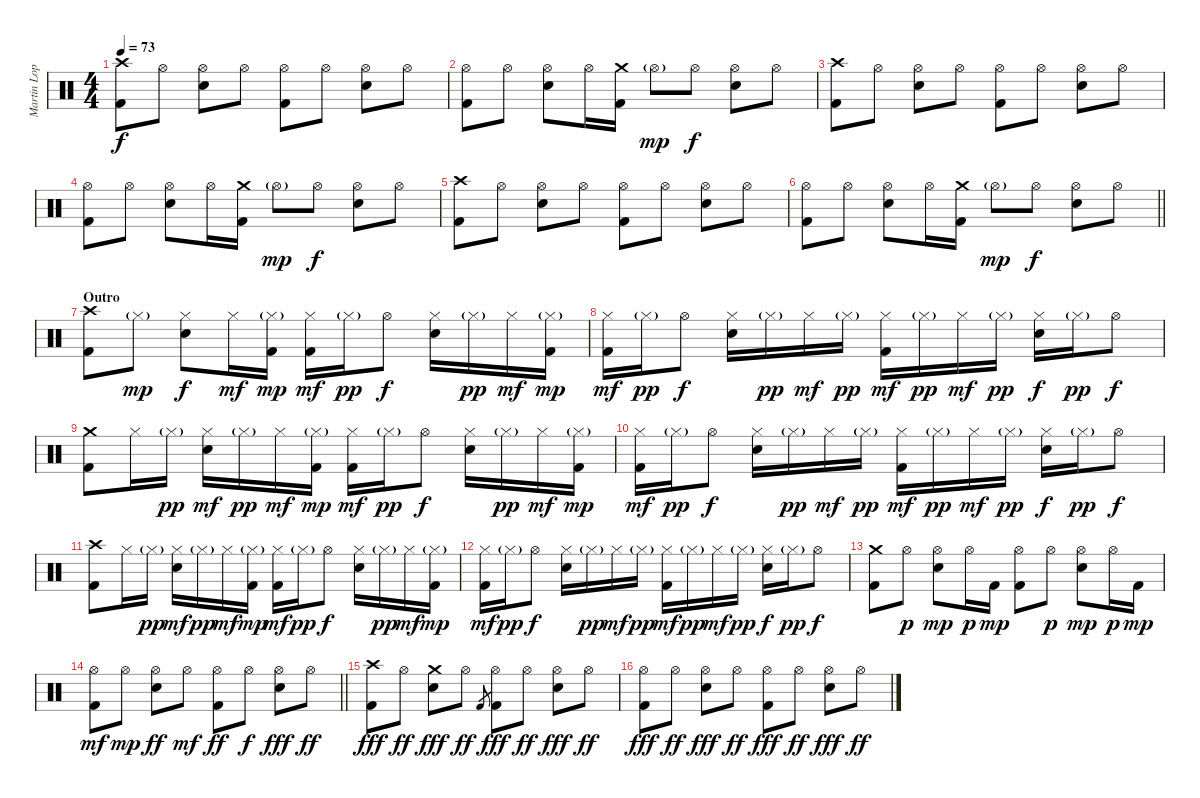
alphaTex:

\track ("Martin Lopez" "Martin Lop") {instrument percussion}
\staff {score}
\articulation defaults
\ts (4 4)
\tempo 73
\clef neutral
\ks c
("Crash high (hit)" "Kick (hit) 2").8{dy f} "Hi-Hat (open)".8 ("Hi-Hat (open)" "Electric Snare (hit)").8 "Hi-Hat (open)".8 ("Hi-Hat (open)" "Kick (hit) 2").8 "Hi-Hat (open)".8 ("Hi-Hat (open)" "Electric Snare (hit)").8 "Hi-Hat (open)".8 |
("Hi-Hat (open)" "Kick (hit) 2").8 "Hi-Hat (open)".8 ("Hi-Hat (open)" "Electric Snare (hit)").8 "Hi-Hat (open)".16 ("Crash medium (hit)" "Kick (hit) 2").16 "Hi-Hat (open)"{g}.8{dy mp} "Hi-Hat (open)".8{dy f} ("Hi-Hat (open)" "Electric Snare (hit)").8 "Hi-Hat (open)".8 |
("Crash high (hit)" "Kick (hit) 2").8 "Hi-Hat (open)".8 ("Hi-Hat (open)" "Electric Snare (hit)").8 "Hi-Hat (open)".8 ("Hi-Hat (open)" "Kick (hit) 2").8 "Hi-Hat (open)".8 ("Hi-Hat (open)" "Electric Snare (hit)").8 "Hi-Hat (open)".8 |
("Hi-Hat (open)" "Kick (hit) 2").8 "Hi-Hat (open)".8 ("Hi-Hat (open)" "Electric Snare (hit)").8 "Hi-Hat (open)".16 ("Crash medium (hit)" "Kick (hit) 2").16 "Hi-Hat (open)"{g}.8{dy mp} "Hi-Hat (open)".8{dy f} ("Hi-Hat (open)" "Electric Snare (hit)").8 "Hi-Hat (open)".8 |
("Crash high (hit)" "Kick (hit) 2").8 "Hi-Hat (open)".8 ("Hi-Hat (open)" "Electric Snare (hit)").8 "Hi-Hat (open)".8 ("Hi-Hat (open)" "Kick (hit) 2").8 "Hi-Hat (open)".8 ("Hi-Hat (open)" "Electric Snare (hit)").8 "Hi-Hat (open)".8 |
\barLineRight lightlight
("Hi-Hat (open)" "Kick (hit) 2").8 "Hi-Hat (open)".8 ("Hi-Hat (open)" "Electric Snare (hit)").8 "Hi-Hat (open)".16 ("Crash medium (hit)" "Kick (hit) 2").16 "Hi-Hat (open)"{g}.8{dy mp} "Hi-Hat (open)".8{dy f} ("Hi-Hat (open)" "Electric Snare (hit)").8 "Hi-Hat (open)".8 |
\section ("" "Outro")
("Crash high (hit)" "Kick (hit) 2").8 "Hi-Hat (closed)"{g}.8{dy mp} ("Hi-Hat (closed)" "Electric Snare (hit)").8{dy f} "Hi-Hat (closed)".16{dy mf} ("Hi-Hat (closed)"{g} "Kick (hit) 2").16{dy mp} ("Hi-Hat (closed)" "Kick (hit) 2").16{dy mf} "Hi-Hat (closed)"{g}.16{dy pp} "Hi-Hat (open)".8{dy f} ("Hi-Hat (closed)" "Electric Snare (hit)").16 "Hi-Hat (closed)"{g}.16{dy pp} "Hi-Hat (closed)".16{dy mf} ("Hi-Hat (closed)"{g} "Kick (hit) 2").16{dy mp} |
("Hi-Hat (closed)" "Kick (hit) 2").16{dy mf} "Hi-Hat (closed)"{g}.16{dy pp} "Hi-Hat (open)".8{dy f} ("Hi-Hat (closed)" "Electric Snare (hit)").16 "Hi-Hat (closed)"{g}.16{dy pp} "Hi-Hat (closed)".16{dy mf} "Hi-Hat (closed)"{g}.16{dy pp} ("Hi-Hat (closed)" "Kick (hit) 2").16{dy mf} "Hi-Hat (closed)"{g}.16{dy pp} "Hi-Hat (closed)".16{dy mf} "Hi-Hat (closed)"{g}.16{dy pp} ("Hi-Hat (closed)" "Electric Snare (hit)").16{dy f} "Hi-Hat (closed)"{g}.16{dy pp} "Hi-Hat (open)".8{dy f} |
("Crash medium (hit)" "Kick (hit) 2").8 "Hi-Hat (closed)".16 "Hi-Hat (closed)"{g}.16{dy pp} ("Hi-Hat (closed)" "Electric Snare (hit)").16{dy mf} "Hi-Hat (closed)"{g}.16{dy pp} "Hi-Hat (closed)".16{dy mf} ("Hi-Hat (closed)"{g} "Kick (hit) 2").16{dy mp} ("Hi-Hat (closed)" "Kick (hit) 2").16{dy mf} "Hi-Hat (closed)"{g}.16{dy pp} "Hi-Hat (open)".8{dy f} ("Hi-Hat (closed)" "Electric Snare (hit)").16 "Hi-Hat (closed)"{g}.16{dy pp} "Hi-Hat (closed)".16{dy mf} ("Hi-Hat (closed)"{g} "Kick (hit) 2").16{dy mp} |
("Hi-Hat (closed)" "Kick (hit) 2").16{dy mf} "Hi-Hat (closed)"{g}.16{dy pp} "Hi-Hat (open)".8{dy f} ("Hi-Hat (closed)" "Electric Snare (hit)").16 "Hi-Hat (closed)"{g}.16{dy pp} "Hi-Hat (closed)".16{dy mf} "Hi-Hat (closed)"{g}.16{dy pp} ("Hi-Hat (closed)" "Kick (hit) 2").16{dy mf} "Hi-Hat (closed)"{g}.16{dy pp} "Hi-Hat (closed)".16{dy mf} "Hi-Hat (closed)"{g}.16{dy pp} ("Hi-Hat (closed)" "Electric Snare (hit)").16{dy f} "Hi-Hat (closed)"{g}.16{dy pp} "Hi-Hat (open)".8{dy f} |
("Crash high (hit)" "Kick (hit) 2").8 "Hi-Hat (closed)".16 "Hi-Hat (closed)"{g}.16{dy pp} ("Hi-Hat (closed)" "Electric Snare (hit)").16{dy mf} "Hi-Hat (closed)"{g}.16{dy pp} "Hi-Hat (closed)".16{dy mf} ("Hi-Hat (closed)"{g} "Kick (hit) 2").16{dy mp} ("Hi-Hat (closed)" "Kick (hit) 2").16{dy mf} "Hi-Hat (closed)"{g}.16{dy pp} "Hi-Hat (open)".8{dy f} ("Hi-Hat (closed)" "Electric Snare (hit)").16 "Hi-Hat (closed)"{g}.16{dy pp} "Hi-Hat (closed)".16{dy mf} ("Hi-Hat (closed)"{g} "Kick (hit) 2").16{dy mp} |
("Hi-Hat (closed)" "Kick (hit) 2").16{dy mf} "Hi-Hat (closed)"{g}.16{dy pp} "Hi-Hat (open)".8{dy f} ("Hi-Hat (closed)" "Electric Snare (hit)").16 "Hi-Hat (closed)"{g}.16{dy pp} "Hi-Hat (closed)".16{dy mf} "Hi-Hat (closed)"{g}.16{dy pp} ("Hi-Hat (closed)" "Kick (hit) 2").16{dy mf} "Hi-Hat (closed)"{g}.16{dy pp} "Hi-Hat (closed)".16{dy mf} "Hi-Hat (closed)"{g}.16{dy pp} ("Hi-Hat (closed)" "Electric Snare (hit)").16{dy f} "Hi-Hat (closed)"{g}.16{dy pp} "Hi-Hat (open)".8{dy f} |
("Crash medium (hit)" "Kick (hit) 2").8 "Hi-Hat (open)".8{dy p} ("Hi-Hat (open)" "Electric Snare (hit)").8{dy mp} "Hi-Hat (open)".16{dy p} "Kick (hit) 2".16{dy mp} ("Hi-Hat (open)" "Kick (hit) 2").8 "Hi-Hat (open)".8{dy p} ("Hi-Hat (open)" "Electric Snare (hit)").8{dy mp} "Hi-Hat (open)".16{dy p} "Kick (hit) 2".16{dy mp} |
\barLineRight lightlight
("Hi-Hat (open)" "Kick (hit) 2").8{dy mf} "Hi-Hat (open)".8{dy mp} ("Hi-Hat (open)" "Electric Snare (hit)").8{dy ff} "Hi-Hat (open)".8{dy mf} ("Hi-Hat (open)" "Kick (hit) 2").8{dy ff} "Hi-Hat (open)".8{dy f} ("Hi-Hat (open)" "Electric Snare (hit)").8{dy fff} "Hi-Hat (open)".8{dy ff} |
\section ("" "")
("Crash high (hit)" "Kick (hit) 2").8{dy fff} "Hi-Hat (open)".8{dy ff} ("Crash medium (hit)" "Electric Snare (hit)").8{dy fff} "Hi-Hat (open)".8{dy ff} "Kick (hit) 2".8{gr} ("Hi-Hat (open)" "Kick (hit) 2").8{dy fff} "Hi-Hat (open)".8{dy ff} ("Hi-Hat (open)" "Electric Snare (hit)").8{dy fff} "Hi-Hat (open)".8{dy ff} |
("Hi-Hat (open)" "Kick (hit) 2").8{dy fff} "Hi-Hat (open)".8{dy ff} ("Hi-Hat (open)" "Electric Snare (hit)").8{dy fff} "Hi-Hat (open)".8{dy ff} ("Hi-Hat (open)" "Kick (hit) 2").8{dy fff} "Hi-Hat (open)".8{dy ff} ("Hi-Hat (open)" "Electric Snare (hit)").8{dy fff} "Hi-Hat (open)".8{dy ff}
